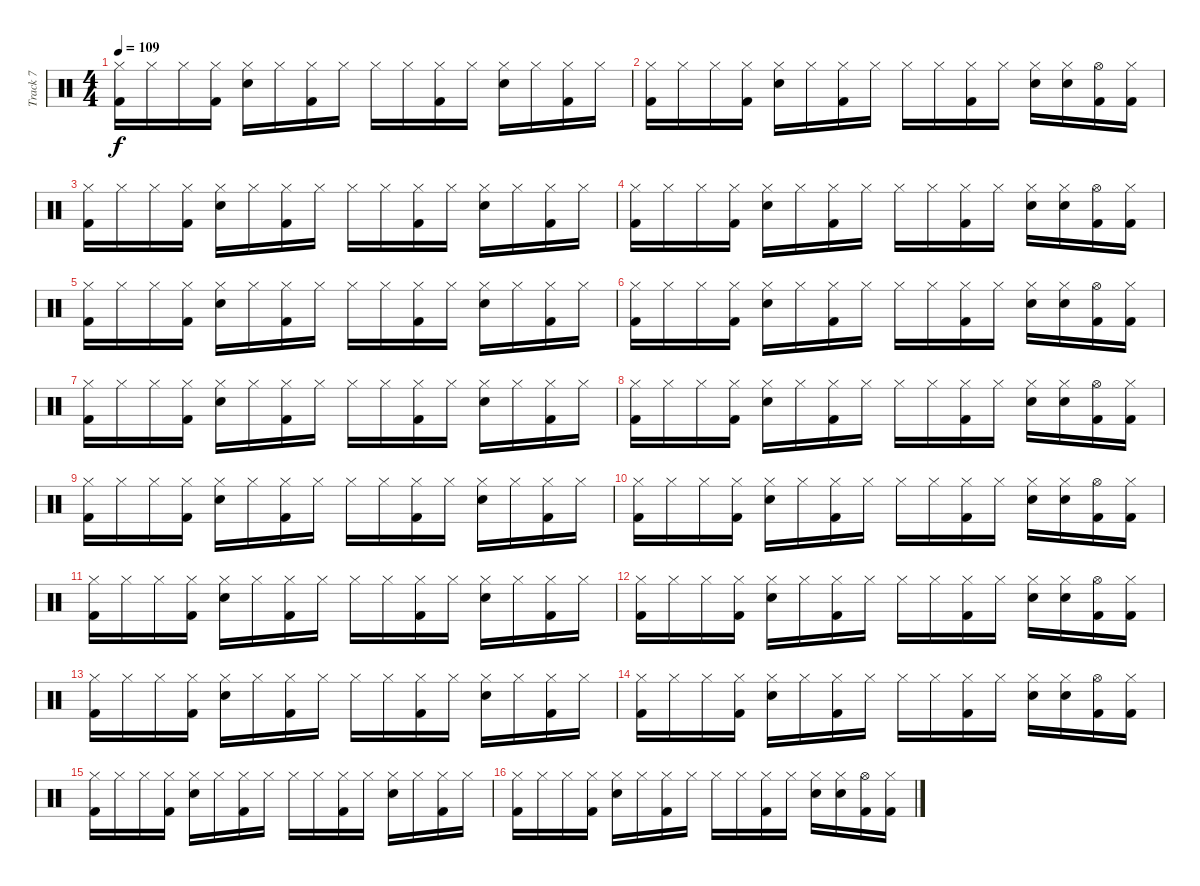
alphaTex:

\track ("Track 7" "Track 7") {instrument percussion}
\staff {score}
\articulation defaults
\ts (4 4)
\tempo 109
\clef neutral
\ks c
("Hi-Hat (closed)" "Kick (hit) 2").16{dy f} "Hi-Hat (closed)".16 "Hi-Hat (closed)".16 ("Hi-Hat (closed)" "Kick (hit) 2").16 ("Hi-Hat (closed)" "Snare (hit) 2").16 "Hi-Hat (closed)".16 ("Hi-Hat (closed)" "Kick (hit) 2").16 "Hi-Hat (closed)".16 "Hi-Hat (closed)".16 "Hi-Hat (closed)".16 ("Hi-Hat (closed)" "Kick (hit) 2").16 "Hi-Hat (closed)".16 ("Hi-Hat (closed)" "Snare (hit) 2").16 "Hi-Hat (closed)".16 ("Hi-Hat (closed)" "Kick (hit) 2").16 "Hi-Hat (closed)".16 |
("Hi-Hat (closed)" "Kick (hit) 2").16 "Hi-Hat (closed)".16 "Hi-Hat (closed)".16 ("Hi-Hat (closed)" "Kick (hit) 2").16 ("Hi-Hat (closed)" "Snare (hit) 2").16 "Hi-Hat (closed)".16 ("Hi-Hat (closed)" "Kick (hit) 2").16 "Hi-Hat (closed)".16 "Hi-Hat (closed)".16 "Hi-Hat (closed)".16 ("Hi-Hat (closed)" "Kick (hit) 2").16 "Hi-Hat (closed)".16 ("Hi-Hat (closed)" "Snare (hit) 2").16 ("Hi-Hat (closed)" "Snare (hit) 2").16 ("Hi-Hat (open)" "Kick (hit) 2").16 ("Hi-Hat (closed)" "Kick (hit) 2").16 |
("Hi-Hat (closed)" "Kick (hit) 2").16 "Hi-Hat (closed)".16 "Hi-Hat (closed)".16 ("Hi-Hat (closed)" "Kick (hit) 2").16 ("Hi-Hat (closed)" "Snare (hit) 2").16 "Hi-Hat (closed)".16 ("Hi-Hat (closed)" "Kick (hit) 2").16 "Hi-Hat (closed)".16 "Hi-Hat (closed)".16 "Hi-Hat (closed)".16 ("Hi-Hat (closed)" "Kick (hit) 2").16 "Hi-Hat (closed)".16 ("Hi-Hat (closed)" "Snare (hit) 2").16 "Hi-Hat (closed)".16 ("Hi-Hat (closed)" "Kick (hit) 2").16 "Hi-Hat (closed)".16 |
("Hi-Hat (closed)" "Kick (hit) 2").16 "Hi-Hat (closed)".16 "Hi-Hat (closed)".16 ("Hi-Hat (closed)" "Kick (hit) 2").16 ("Hi-Hat (closed)" "Snare (hit) 2").16 "Hi-Hat (closed)".16 ("Hi-Hat (closed)" "Kick (hit) 2").16 "Hi-Hat (closed)".16 "Hi-Hat (closed)".16 "Hi-Hat (closed)".16 ("Hi-Hat (closed)" "Kick (hit) 2").16 "Hi-Hat (closed)".16 ("Hi-Hat (closed)" "Snare (hit) 2").16 ("Hi-Hat (closed)" "Snare (hit) 2").16 ("Hi-Hat (open)" "Kick (hit) 2").16 ("Hi-Hat (closed)" "Kick (hit) 2").16 |
("Hi-Hat (closed)" "Kick (hit) 2").16 "Hi-Hat (closed)".16 "Hi-Hat (closed)".16 ("Hi-Hat (closed)" "Kick (hit) 2").16 ("Hi-Hat (closed)" "Snare (hit) 2").16 "Hi-Hat (closed)".16 ("Hi-Hat (closed)" "Kick (hit) 2").16 "Hi-Hat (closed)".16 "Hi-Hat (closed)".16 "Hi-Hat (closed)".16 ("Hi-Hat (closed)" "Kick (hit) 2").16 "Hi-Hat (closed)".16 ("Hi-Hat (closed)" "Snare (hit) 2").16 "Hi-Hat (closed)".16 ("Hi-Hat (closed)" "Kick (hit) 2").16 "Hi-Hat (closed)".16 |
("Hi-Hat (closed)" "Kick (hit) 2").16 "Hi-Hat (closed)".16 "Hi-Hat (closed)".16 ("Hi-Hat (closed)" "Kick (hit) 2").16 ("Hi-Hat (closed)" "Snare (hit) 2").16 "Hi-Hat (closed)".16 ("Hi-Hat (closed)" "Kick (hit) 2").16 "Hi-Hat (closed)".16 "Hi-Hat (closed)".16 "Hi-Hat (closed)".16 ("Hi-Hat (closed)" "Kick (hit) 2").16 "Hi-Hat (closed)".16 ("Hi-Hat (closed)" "Snare (hit) 2").16 ("Hi-Hat (closed)" "Snare (hit) 2").16 ("Hi-Hat (open)" "Kick (hit) 2").16 ("Hi-Hat (closed)" "Kick (hit) 2").16 |
("Hi-Hat (closed)" "Kick (hit) 2").16 "Hi-Hat (closed)".16 "Hi-Hat (closed)".16 ("Hi-Hat (closed)" "Kick (hit) 2").16 ("Hi-Hat (closed)" "Snare (hit) 2").16 "Hi-Hat (closed)".16 ("Hi-Hat (closed)" "Kick (hit) 2").16 "Hi-Hat (closed)".16 "Hi-Hat (closed)".16 "Hi-Hat (closed)".16 ("Hi-Hat (closed)" "Kick (hit) 2").16 "Hi-Hat (closed)".16 ("Hi-Hat (closed)" "Snare (hit) 2").16 "Hi-Hat (closed)".16 ("Hi-Hat (closed)" "Kick (hit) 2").16 "Hi-Hat (closed)".16 |
("Hi-Hat (closed)" "Kick (hit) 2").16 "Hi-Hat (closed)".16 "Hi-Hat (closed)".16 ("Hi-Hat (closed)" "Kick (hit) 2").16 ("Hi-Hat (closed)" "Snare (hit) 2").16 "Hi-Hat (closed)".16 ("Hi-Hat (closed)" "Kick (hit) 2").16 "Hi-Hat (closed)".16 "Hi-Hat (closed)".16 "Hi-Hat (closed)".16 ("Hi-Hat (closed)" "Kick (hit) 2").16 "Hi-Hat (closed)".16 ("Hi-Hat (closed)" "Snare (hit) 2").16 ("Hi-Hat (closed)" "Snare (hit) 2").16 ("Hi-Hat (open)" "Kick (hit) 2").16 ("Hi-Hat (closed)" "Kick (hit) 2").16 |
("Hi-Hat (closed)" "Kick (hit) 2").16 "Hi-Hat (closed)".16 "Hi-Hat (closed)".16 ("Hi-Hat (closed)" "Kick (hit) 2").16 ("Hi-Hat (closed)" "Snare (hit) 2").16 "Hi-Hat (closed)".16 ("Hi-Hat (closed)" "Kick (hit) 2").16 "Hi-Hat (closed)".16 "Hi-Hat (closed)".16 "Hi-Hat (closed)".16 ("Hi-Hat (closed)" "Kick (hit) 2").16 "Hi-Hat (closed)".16 ("Hi-Hat (closed)" "Snare (hit) 2").16 "Hi-Hat (closed)".16 ("Hi-Hat (closed)" "Kick (hit) 2").16 "Hi-Hat (closed)".16 |
("Hi-Hat (closed)" "Kick (hit) 2").16 "Hi-Hat (closed)".16 "Hi-Hat (closed)".16 ("Hi-Hat (closed)" "Kick (hit) 2").16 ("Hi-Hat (closed)" "Snare (hit) 2").16 "Hi-Hat (closed)".16 ("Hi-Hat (closed)" "Kick (hit) 2").16 "Hi-Hat (closed)".16 "Hi-Hat (closed)".16 "Hi-Hat (closed)".16 ("Hi-Hat (closed)" "Kick (hit) 2").16 "Hi-Hat (closed)".16 ("Hi-Hat (closed)" "Snare (hit) 2").16 ("Hi-Hat (closed)" "Snare (hit) 2").16 ("Hi-Hat (open)" "Kick (hit) 2").16 ("Hi-Hat (closed)" "Kick (hit) 2").16 |
("Hi-Hat (closed)" "Kick (hit) 2").16 "Hi-Hat (closed)".16 "Hi-Hat (closed)".16 ("Hi-Hat (closed)" "Kick (hit) 2").16 ("Hi-Hat (closed)" "Snare (hit) 2").16 "Hi-Hat (closed)".16 ("Hi-Hat (closed)" "Kick (hit) 2").16 "Hi-Hat (closed)".16 "Hi-Hat (closed)".16 "Hi-Hat (closed)".16 ("Hi-Hat (closed)" "Kick (hit) 2").16 "Hi-Hat (closed)".16 ("Hi-Hat (closed)" "Snare (hit) 2").16 "Hi-Hat (closed)".16 ("Hi-Hat (closed)" "Kick (hit) 2").16 "Hi-Hat (closed)".16 |
("Hi-Hat (closed)" "Kick (hit) 2").16 "Hi-Hat (closed)".16 "Hi-Hat (closed)".16 ("Hi-Hat (closed)" "Kick (hit) 2").16 ("Hi-Hat (closed)" "Snare (hit) 2").16 "Hi-Hat (closed)".16 ("Hi-Hat (closed)" "Kick (hit) 2").16 "Hi-Hat (closed)".16 "Hi-Hat (closed)".16 "Hi-Hat (closed)".16 ("Hi-Hat (closed)" "Kick (hit) 2").16 "Hi-Hat (closed)".16 ("Hi-Hat (closed)" "Snare (hit) 2").16 ("Hi-Hat (closed)" "Snare (hit) 2").16 ("Hi-Hat (open)" "Kick (hit) 2").16 ("Hi-Hat (closed)" "Kick (hit) 2").16 |
("Hi-Hat (closed)" "Kick (hit) 2").16 "Hi-Hat (closed)".16 "Hi-Hat (closed)".16 ("Hi-Hat (closed)" "Kick (hit) 2").16 ("Hi-Hat (closed)" "Snare (hit) 2").16 "Hi-Hat (closed)".16 ("Hi-Hat (closed)" "Kick (hit) 2").16 "Hi-Hat (closed)".16 "Hi-Hat (closed)".16 "Hi-Hat (closed)".16 ("Hi-Hat (closed)" "Kick (hit) 2").16 "Hi-Hat (closed)".16 ("Hi-Hat (closed)" "Snare (hit) 2").16 "Hi-Hat (closed)".16 ("Hi-Hat (closed)" "Kick (hit) 2").16 "Hi-Hat (closed)".16 |
("Hi-Hat (closed)" "Kick (hit) 2").16 "Hi-Hat (closed)".16 "Hi-Hat (closed)".16 ("Hi-Hat (closed)" "Kick (hit) 2").16 ("Hi-Hat (closed)" "Snare (hit) 2").16 "Hi-Hat (closed)".16 ("Hi-Hat (closed)" "Kick (hit) 2").16 "Hi-Hat (closed)".16 "Hi-Hat (closed)".16 "Hi-Hat (closed)".16 ("Hi-Hat (closed)" "Kick (hit) 2").16 "Hi-Hat (closed)".16 ("Hi-Hat (closed)" "Snare (hit) 2").16 ("Hi-Hat (closed)" "Snare (hit) 2").16 ("Hi-Hat (open)" "Kick (hit) 2").16 ("Hi-Hat (closed)" "Kick (hit) 2").16 |
("Hi-Hat (closed)" "Kick (hit) 2").16 "Hi-Hat (closed)".16 "Hi-Hat (closed)".16 ("Hi-Hat (closed)" "Kick (hit) 2").16 ("Hi-Hat (closed)" "Snare (hit) 2").16 "Hi-Hat (closed)".16 ("Hi-Hat (closed)" "Kick (hit) 2").16 "Hi-Hat (closed)".16 "Hi-Hat (closed)".16 "Hi-Hat (closed)".16 ("Hi-Hat (closed)" "Kick (hit) 2").16 "Hi-Hat (closed)".16 ("Hi-Hat (closed)" "Snare (hit) 2").16 "Hi-Hat (closed)".16 ("Hi-Hat (closed)" "Kick (hit) 2").16 "Hi-Hat (closed)".16 |
("Hi-Hat (closed)" "Kick (hit) 2").16 "Hi-Hat (closed)".16 "Hi-Hat (closed)".16 ("Hi-Hat (closed)" "Kick (hit) 2").16 ("Hi-Hat (closed)" "Snare (hit) 2").16 "Hi-Hat (closed)".16 ("Hi-Hat (closed)" "Kick (hit) 2").16 "Hi-Hat (closed)".16 "Hi-Hat (closed)".16 "Hi-Hat (closed)".16 ("Hi-Hat (closed)" "Kick (hit) 2").16 "Hi-Hat (closed)".16 ("Hi-Hat (closed)" "Snare (hit) 2").16 ("Hi-Hat (closed)" "Snare (hit) 2").16 ("Hi-Hat (open)" "Kick (hit) 2").16 ("Hi-Hat (closed)" "Kick (hit) 2").16
